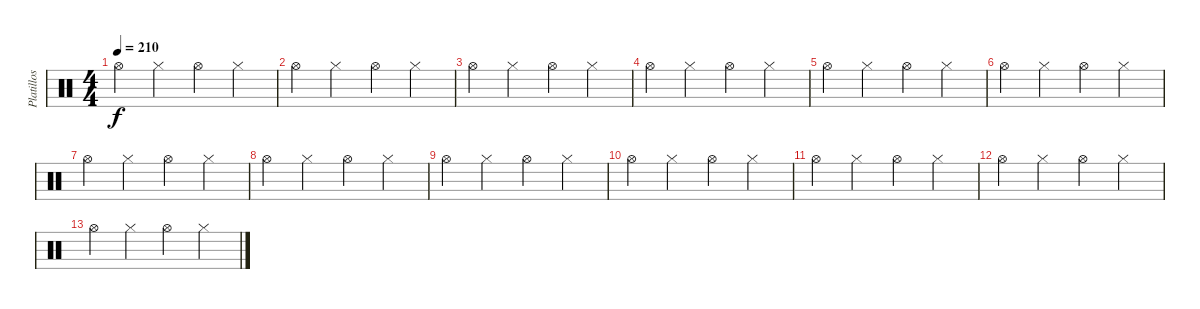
\track ("Platillos (Leo)" "Platillos ") {instrument percussion}
\staff {score}
\articulation defaults
\ts (4 4)
\tempo 210
\clef neutral
\ks c "Hi-Hat (open)".4{dy f} "Hi-Hat (closed)".4 "Hi-Hat (open)".4 "Hi-Hat (closed)".4
|
"Hi-Hat (open)".4 "Hi-Hat (closed)".4 "Hi-Hat (open)".4 "Hi-Hat (closed)".4 |
"Hi-Hat (open)".4 "Hi-Hat (closed)".4 "Hi-Hat (open)".4 "Hi-Hat (closed)".4 |
"Hi-Hat (open)".4 "Hi-Hat (closed)".4 "Hi-Hat (open)".4 "Hi-Hat (closed)".4 |
"Hi-Hat (open)".4 "Hi-Hat (closed)".4 "Hi-Hat (open)".4 "Hi-Hat (closed)".4 |
"Hi-Hat (open)".4 "Hi-Hat (closed)".4 "Hi-Hat (open)".4 "Hi-Hat (closed)".4 |
"Hi-Hat (open)".4 "Hi-Hat (closed)".4 "Hi-Hat (open)".4 "Hi-Hat (closed)".4 |
"Hi-Hat (open)".4 "Hi-Hat (closed)".4 "Hi-Hat (open)".4 "Hi-Hat (closed)".4 |
"Hi-Hat (open)".4 "Hi-Hat (closed)".4 "Hi-Hat (open)".4 "Hi-Hat (closed)".4 |
"Hi-Hat (open)".4 "Hi-Hat (closed)".4 "Hi-Hat (open)".4 "Hi-Hat (closed)".4 |
"Hi-Hat (open)".4 "Hi-Hat (closed)".4 "Hi-Hat (open)".4 "Hi-Hat (closed)".4 |
"Hi-Hat (open)".4 "Hi-Hat (closed)".4 "Hi-Hat (open)".4 "Hi-Hat (closed)".4 |
"Hi-Hat (open)".4 "Hi-Hat (closed)".4 "Hi-Hat (open)".4 "Hi-Hat (closed)".4
